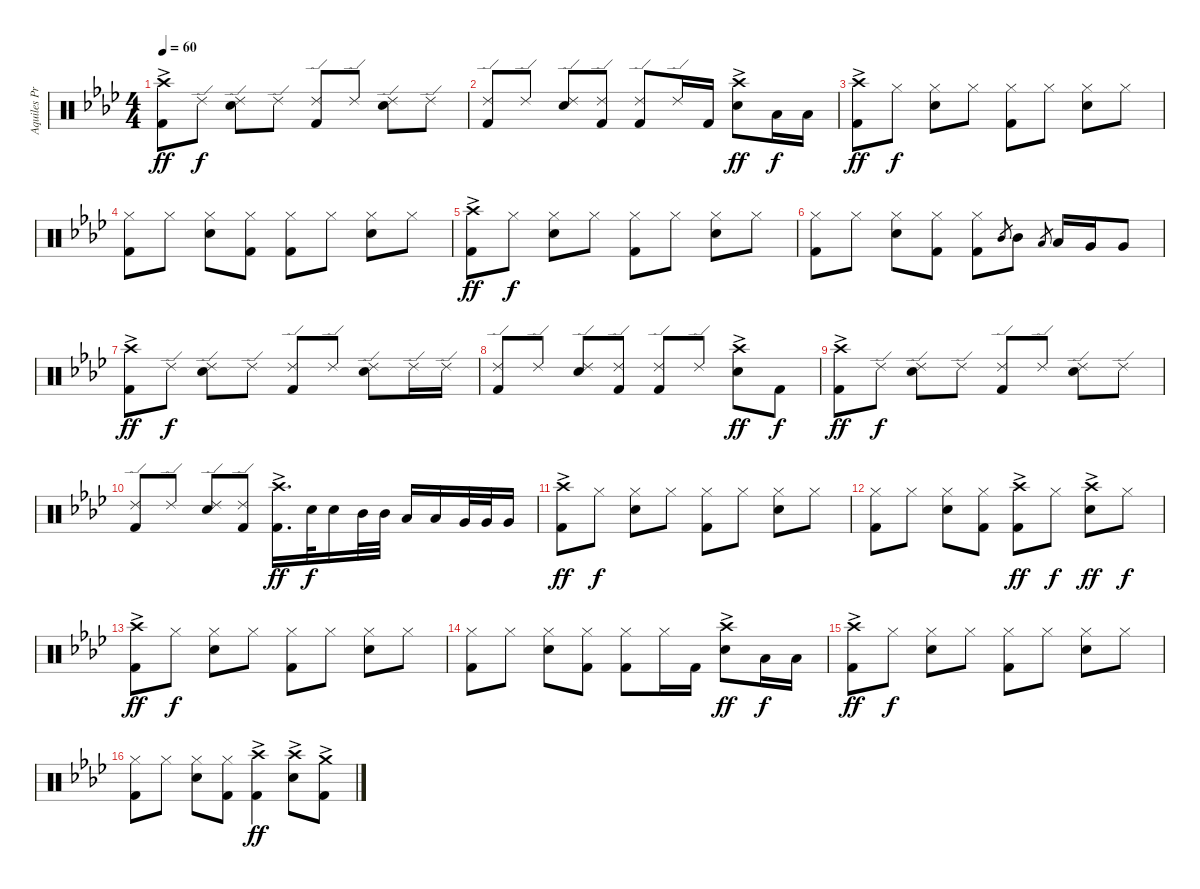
\track ("Aquiles Priester" "Aquiles Pr") {instrument percussion}
\staff {score}
\articulation defaults
\ts (4 4)
\tempo 60
\clef neutral
\ks ab
("Crash high (hit)"{ac} "Kick (hit) 2"{ac}).8{dy ff} "Ride (edge) 2".8{dy f} ("Ride (edge) 2" "Electric Snare (hit)").8 "Ride (edge) 2".8 ("Ride (edge) 2" "Kick (hit) 2").8 "Ride (edge) 2".8 ("Ride (edge) 2" "Electric Snare (hit)").8 "Ride (edge) 2".8 |
("Ride (edge) 2" "Kick (hit) 2").8 "Ride (edge) 2".8 ("Ride (edge) 2" "Electric Snare (hit)").8 ("Ride (edge) 2" "Kick (hit) 2").8 ("Ride (edge) 2" "Kick (hit) 2").8 "Ride (edge) 2".16 "Kick (hit) 2".16 ("Crash high (hit)"{ac} "Electric Snare (hit)"{ac}).8{dy ff} "Low Tom (hit)".16{dy f} "Low Tom (hit)".16 |
("Crash high (hit)"{ac} "Kick (hit) 2"{ac}).8{dy ff} "Hi-Hat (closed)".8{dy f} ("Hi-Hat (closed)" "Electric Snare (hit)").8 "Hi-Hat (closed)".8 ("Hi-Hat (closed)" "Kick (hit) 2").8 "Hi-Hat (closed)".8 ("Hi-Hat (closed)" "Electric Snare (hit)").8 "Hi-Hat (closed)".8 |
("Hi-Hat (closed)" "Kick (hit) 2").8 "Hi-Hat (closed)".8 ("Hi-Hat (closed)" "Electric Snare (hit)").8 ("Hi-Hat (closed)" "Kick (hit) 2").8 ("Hi-Hat (closed)" "Kick (hit) 2").8 "Hi-Hat (closed)".8 ("Hi-Hat (closed)" "Electric Snare (hit)").8 "Hi-Hat (closed)".8 |
("Crash high (hit)"{ac} "Kick (hit) 2"{ac}).8{dy ff} "Hi-Hat (closed)".8{dy f} ("Hi-Hat (closed)" "Electric Snare (hit)").8 "Hi-Hat (closed)".8 ("Hi-Hat (closed)" "Kick (hit) 2").8 "Hi-Hat (closed)".8 ("Hi-Hat (closed)" "Electric Snare (hit)").8 "Hi-Hat (closed)".8 |
("Hi-Hat (closed)" "Kick (hit) 2").8 "Hi-Hat (closed)".8 ("Hi-Hat (closed)" "Electric Snare (hit)").8 ("Hi-Hat (closed)" "Kick (hit) 2").8 ("Hi-Hat (closed)" "Kick (hit) 2").8 "Mid Tom (hit)".8{gr} "Mid Tom (hit)".8 "Low Tom (hit)".8{gr} "Low Tom (hit)".16 "Very Low Tom (hit)".16 "Very Low Tom (hit)".8 |
("Crash high (hit)"{ac} "Kick (hit) 2"{ac}).8{dy ff} "Ride (edge) 2".8{dy f} ("Ride (edge) 2" "Electric Snare (hit)").8 "Ride (edge) 2".8 ("Ride (edge) 2" "Kick (hit) 2").8 "Ride (edge) 2".8 ("Ride (edge) 2" "Electric Snare (hit)").8 "Ride (edge) 2".16 "Ride (edge) 2".16 |
("Ride (edge) 2" "Kick (hit) 2").8 "Ride (edge) 2".8 ("Ride (edge) 2" "Electric Snare (hit)").8 ("Ride (edge) 2" "Kick (hit) 2").8 ("Ride (edge) 2" "Kick (hit) 2").8 "Ride (edge) 2".8 ("Crash high (hit)"{ac} "Electric Snare (hit)"{ac}).8{dy ff} "Kick (hit) 2".8{dy f} |
("Crash high (hit)"{ac} "Kick (hit) 2"{ac}).8{dy ff} "Ride (edge) 2".8{dy f} ("Ride (edge) 2" "Electric Snare (hit)").8 "Ride (edge) 2".8 ("Ride (edge) 2" "Kick (hit) 2").8 "Ride (edge) 2".8 ("Ride (edge) 2" "Electric Snare (hit)").8 "Ride (edge) 2".8 |
("Ride (edge) 2" "Kick (hit) 2").8 "Ride (edge) 2".8 ("Ride (edge) 2" "Electric Snare (hit)").8 ("Ride (edge) 2" "Kick (hit) 2").8 ("Crash high (hit)"{ac} "Kick (hit) 2"{ac}).16{d dy ff} "Electric Snare (hit)".32{dy f} "Electric Snare (hit)".16 "Mid Tom (hit)".32 "Mid Tom (hit)".32 "Low Tom (hit)".16 "Low Tom (hit)".16 "Very Low Tom (hit)".32 "Very Low Tom (hit)".32 "Very Low Tom (hit)".16 |
("Crash high (hit)"{ac} "Kick (hit) 2"{ac}).8{dy ff} "Hi-Hat (closed)".8{dy f} ("Hi-Hat (closed)" "Electric Snare (hit)").8 "Hi-Hat (closed)".8 ("Hi-Hat (closed)" "Kick (hit) 2").8 "Hi-Hat (closed)".8 ("Hi-Hat (closed)" "Electric Snare (hit)").8 "Hi-Hat (closed)".8 |
("Hi-Hat (closed)" "Kick (hit) 2").8 "Hi-Hat (closed)".8 ("Hi-Hat (closed)" "Electric Snare (hit)").8 ("Hi-Hat (closed)" "Kick (hit) 2").8 ("Crash high (hit)"{ac} "Kick (hit) 2"{ac}).8{dy ff} "Hi-Hat (closed)".8{dy f} ("Crash high (hit)"{ac} "Electric Snare (hit)"{ac}).8{dy ff} "Hi-Hat (closed)".8{dy f} |
("Crash high (hit)"{ac} "Kick (hit) 2"{ac}).8{dy ff} "Hi-Hat (closed)".8{dy f} ("Hi-Hat (closed)" "Electric Snare (hit)").8 "Hi-Hat (closed)".8 ("Hi-Hat (closed)" "Kick (hit) 2").8 "Hi-Hat (closed)".8 ("Hi-Hat (closed)" "Electric Snare (hit)").8 "Hi-Hat (closed)".8 |
("Hi-Hat (closed)" "Kick (hit) 2").8 "Hi-Hat (closed)".8 ("Hi-Hat (closed)" "Electric Snare (hit)").8 ("Hi-Hat (closed)" "Kick (hit) 2").8 ("Hi-Hat (closed)" "Kick (hit) 2").8 "Hi-Hat (closed)".16 "Kick (hit) 2".16 ("Crash high (hit)"{ac} "Electric Snare (hit)"{ac}).8{dy ff} "Low Tom (hit)".16{dy f} "Low Tom (hit)".16 |
("Crash high (hit)"{ac} "Kick (hit) 2"{ac}).8{dy ff} "Hi-Hat (closed)".8{dy f} ("Hi-Hat (closed)" "Electric Snare (hit)").8 "Hi-Hat (closed)".8 ("Hi-Hat (closed)" "Kick (hit) 2").8 "Hi-Hat (closed)".8 ("Hi-Hat (closed)" "Electric Snare (hit)").8 "Hi-Hat (closed)".8 |
("Hi-Hat (closed)" "Kick (hit) 2").8 "Hi-Hat (closed)".8 ("Hi-Hat (closed)" "Electric Snare (hit)").8 ("Hi-Hat (closed)" "Kick (hit) 2").8 ("Crash high (hit)"{ac} "Kick (hit) 2"{ac}).4{dy ff} ("Crash high (hit)"{ac} "Electric Snare (hit)"{ac}).8 ("Crash medium (hit)"{ac} "Kick (hit) 2"{ac}).8
